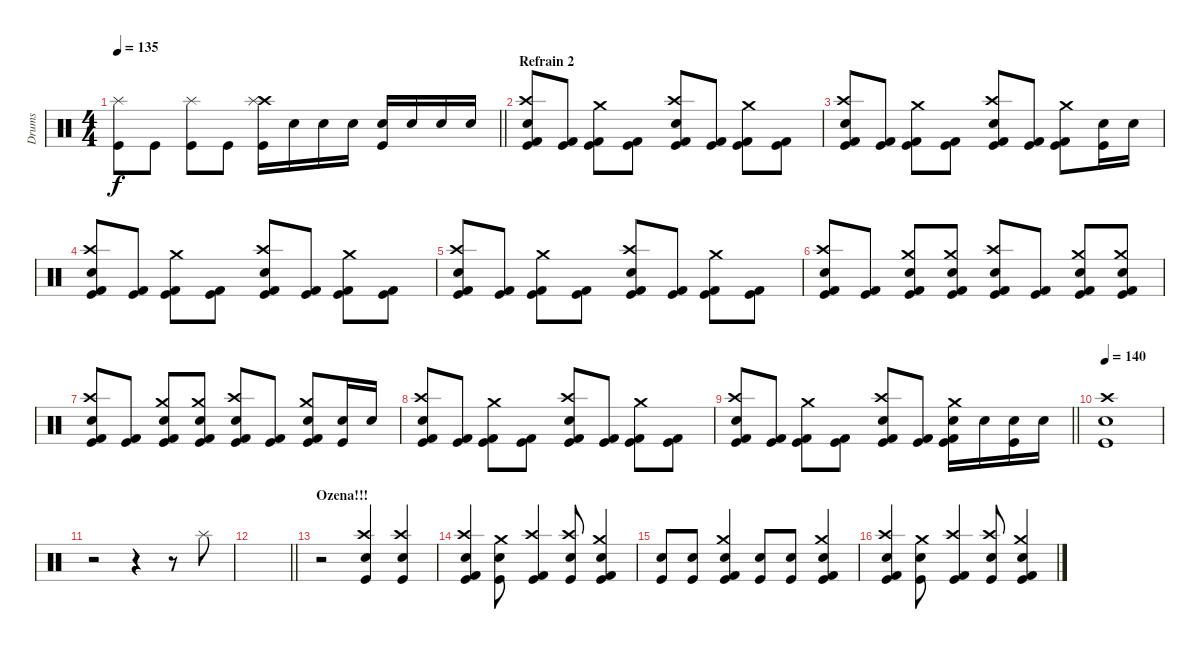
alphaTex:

\track ("Drums" "Drums") {instrument percussion}
\staff {score}
\articulation defaults
\ts (4 4)
\tempo 135
\clef neutral
\barLineRight lightlight
\ks c
("Splash (hit)" "Kick (hit)").8{dy f} "Kick (hit)".8 ("Splash (hit)" "Kick (hit)").8 "Kick (hit)".8 ("Crash high (hit)" "Splash (hit)" "Kick (hit)").16 "Snare (hit) 2".16 "Snare (hit) 2".16 "Snare (hit) 2".16 ("Snare (hit) 2" "Kick (hit)").16 "Snare (hit) 2".16 "Snare (hit) 2".16 "Snare (hit) 2".16 |
\section ("" "Refrain 2")
("Crash high (hit)" "Snare (hit) 2" "Kick (hit) 2" "Kick (hit)").8 ("Kick (hit) 2" "Kick (hit)").8 ("Crash medium (hit)" "Kick (hit) 2" "Kick (hit)").8 ("Kick (hit) 2" "Kick (hit)").8 ("Crash high (hit)" "Snare (hit) 2" "Kick (hit) 2" "Kick (hit)").8 ("Kick (hit) 2" "Kick (hit)").8 ("Crash medium (hit)" "Kick (hit) 2" "Kick (hit)").8 ("Kick (hit) 2" "Kick (hit)").8 |
("Crash high (hit)" "Snare (hit) 2" "Kick (hit) 2" "Kick (hit)").8 ("Kick (hit) 2" "Kick (hit)").8 ("Crash medium (hit)" "Kick (hit) 2" "Kick (hit)").8 ("Kick (hit) 2" "Kick (hit)").8 ("Crash high (hit)" "Snare (hit) 2" "Kick (hit) 2" "Kick (hit)").8 ("Kick (hit) 2" "Kick (hit)").8 ("Crash medium (hit)" "Kick (hit) 2" "Kick (hit)").8 ("Snare (hit) 2" "Kick (hit)").16 "Snare (hit) 2".16 |
("Crash high (hit)" "Snare (hit) 2" "Kick (hit) 2" "Kick (hit)").8 ("Kick (hit) 2" "Kick (hit)").8 ("Crash medium (hit)" "Kick (hit) 2" "Kick (hit)").8 ("Kick (hit) 2" "Kick (hit)").8 ("Crash high (hit)" "Snare (hit) 2" "Kick (hit) 2" "Kick (hit)").8 ("Kick (hit) 2" "Kick (hit)").8 ("Crash medium (hit)" "Kick (hit) 2" "Kick (hit)").8 ("Kick (hit) 2" "Kick (hit)").8 |
("Crash high (hit)" "Snare (hit) 2" "Kick (hit) 2" "Kick (hit)").8 ("Kick (hit) 2" "Kick (hit)").8 ("Crash medium (hit)" "Kick (hit) 2" "Kick (hit)").8 ("Kick (hit) 2" "Kick (hit)").8 ("Crash high (hit)" "Snare (hit) 2" "Kick (hit) 2" "Kick (hit)").8 ("Kick (hit) 2" "Kick (hit)").8 ("Crash medium (hit)" "Kick (hit) 2" "Kick (hit)").8 ("Kick (hit) 2" "Kick (hit)").8 |
("Crash high (hit)" "Snare (hit) 2" "Kick (hit) 2" "Kick (hit)").8 ("Kick (hit) 2" "Kick (hit)").8 ("Crash medium (hit)" "Electric Snare (hit)" "Kick (hit) 2" "Kick (hit)").8 ("Crash medium (hit)" "Electric Snare (hit)" "Kick (hit) 2" "Kick (hit)").8 ("Crash high (hit)" "Snare (hit) 2" "Kick (hit) 2" "Kick (hit)").8 ("Kick (hit) 2" "Kick (hit)").8 ("Crash medium (hit)" "Electric Snare (hit)" "Kick (hit) 2" "Kick (hit)").8 ("Crash medium (hit)" "Electric Snare (hit)" "Kick (hit) 2" "Kick (hit)").8 |
("Crash high (hit)" "Snare (hit) 2" "Kick (hit) 2" "Kick (hit)").8 ("Kick (hit) 2" "Kick (hit)").8 ("Crash medium (hit)" "Electric Snare (hit)" "Kick (hit) 2" "Kick (hit)").8 ("Crash medium (hit)" "Electric Snare (hit)" "Kick (hit) 2" "Kick (hit)").8 ("Crash high (hit)" "Snare (hit) 2" "Kick (hit) 2" "Kick (hit)").8 ("Kick (hit) 2" "Kick (hit)").8 ("Crash medium (hit)" "Electric Snare (hit)" "Kick (hit) 2" "Kick (hit)").8 ("Snare (hit) 2" "Kick (hit)").16 "Snare (hit) 2".16 |
("Crash high (hit)" "Snare (hit) 2" "Kick (hit) 2" "Kick (hit)").8 ("Kick (hit) 2" "Kick (hit)").8 ("Crash medium (hit)" "Kick (hit) 2" "Kick (hit)").8 ("Kick (hit) 2" "Kick (hit)").8 ("Crash high (hit)" "Snare (hit) 2" "Kick (hit) 2" "Kick (hit)").8 ("Kick (hit) 2" "Kick (hit)").8 ("Crash medium (hit)" "Kick (hit) 2" "Kick (hit)").8 ("Kick (hit) 2" "Kick (hit)").8 |
\barLineRight lightlight
("Crash high (hit)" "Snare (hit) 2" "Kick (hit) 2" "Kick (hit)").8 ("Kick (hit) 2" "Kick (hit)").8 ("Crash medium (hit)" "Kick (hit) 2" "Kick (hit)").8 ("Kick (hit) 2" "Kick (hit)").8 ("Crash high (hit)" "Snare (hit) 2" "Kick (hit) 2" "Kick (hit)").8 ("Kick (hit) 2" "Kick (hit)").8 ("Crash medium (hit)" "Snare (hit) 2" "Kick (hit) 2" "Kick (hit)").16 "Snare (hit) 2".16 ("Snare (hit) 2" "Kick (hit)").16 "Snare (hit) 2".16 |
\tempo 140
("Crash high (hit)" "Snare (hit) 2" "Kick (hit)").1 |
r.2 r.4 r.8 "Splash (hit)".8 |
\barLineRight lightlight
|
\section ("" "Ozena!!!")
r.2 ("Crash high (hit)" "Snare (hit) 2" "Kick (hit)").4 ("Crash high (hit)" "Snare (hit) 2" "Kick (hit)").4 |
("Crash high (hit)" "Snare (hit) 2" "Kick (hit) 2" "Kick (hit)").4 ("Crash medium (hit)" "Snare (hit) 2" "Kick (hit)").8 ("Crash high (hit)" "Kick (hit) 2" "Kick (hit)").4 ("Crash high (hit)" "Snare (hit) 2" "Kick (hit)").8 ("Crash medium (hit)" "Electric Snare (hit)" "Kick (hit) 2" "Kick (hit)").4 |
("Snare (hit) 2" "Kick (hit)").8 ("Snare (hit) 2" "Kick (hit)").8 ("Crash medium (hit)" "Electric Snare (hit)" "Kick (hit) 2" "Kick (hit)").4 ("Snare (hit) 2" "Kick (hit)").8 ("Snare (hit) 2" "Kick (hit)").8 ("Crash medium (hit)" "Electric Snare (hit)" "Kick (hit) 2" "Kick (hit)").4 |
("Crash high (hit)" "Snare (hit) 2" "Kick (hit) 2" "Kick (hit)").4 ("Crash medium (hit)" "Snare (hit) 2" "Kick (hit)").8 ("Crash high (hit)" "Kick (hit) 2" "Kick (hit)").4 ("Crash high (hit)" "Snare (hit) 2" "Kick (hit)").8 ("Crash medium (hit)" "Electric Snare (hit)" "Kick (hit) 2" "Kick (hit)").4
